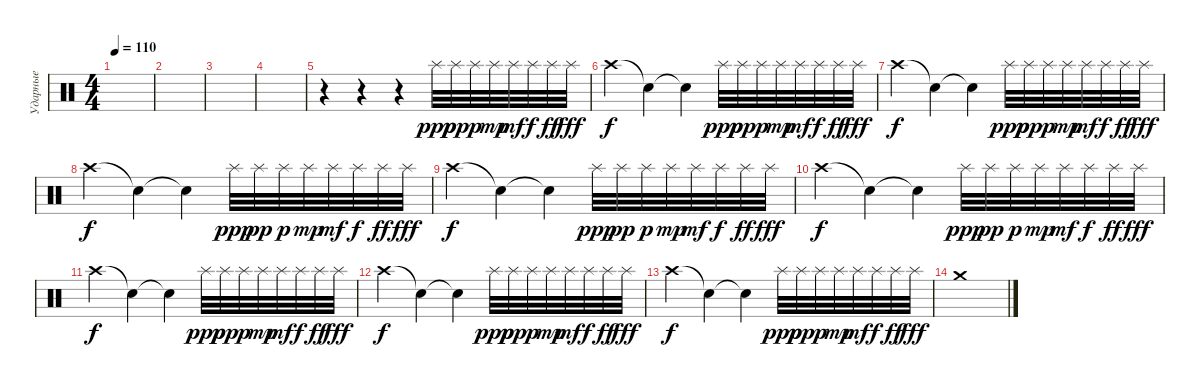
\track ("Ударные" "Ударные") {instrument percussion}
\staff {score}
\articulation defaults
\ts (4 4)
\tempo 110
\clef neutral
\ks c
|
|
|
|
r.4 r.4 r.4 "Splash (hit)".32{dy ppp} "Splash (hit)".32{dy pp} "Splash (hit)".32{dy p} "Splash (hit)".32{dy mp} "Splash (hit)".32{dy mf} "Splash (hit)".32{dy f} "Splash (hit)".32{dy ff} "Splash (hit)".32{dy fff} |
"Crash high (hit)".4{dy f} "Snare (hit)"{t}.4 "Snare (hit)"{t}.4 "Splash (hit)".32{dy ppp} "Splash (hit)".32{dy pp} "Splash (hit)".32{dy p} "Splash (hit)".32{dy mp} "Splash (hit)".32{dy mf} "Splash (hit)".32{dy f} "Splash (hit)".32{dy ff} "Splash (hit)".32{dy fff} |
"Crash high (hit)".4{dy f} "Snare (hit)"{t}.4 "Snare (hit)"{t}.4 "Splash (hit)".32{dy ppp} "Splash (hit)".32{dy pp} "Splash (hit)".32{dy p} "Splash (hit)".32{dy mp} "Splash (hit)".32{dy mf} "Splash (hit)".32{dy f} "Splash (hit)".32{dy ff} "Splash (hit)".32{dy fff} |
"Crash high (hit)".4{dy f} "Snare (hit)"{t}.4 "Snare (hit)"{t}.4 "Splash (hit)".32{dy ppp} "Splash (hit)".32{dy pp} "Splash (hit)".32{dy p} "Splash (hit)".32{dy mp} "Splash (hit)".32{dy mf} "Splash (hit)".32{dy f} "Splash (hit)".32{dy ff} "Splash (hit)".32{dy fff} |
"Crash high (hit)".4{dy f} "Snare (hit)"{t}.4 "Snare (hit)"{t}.4 "Splash (hit)".32{dy ppp} "Splash (hit)".32{dy pp} "Splash (hit)".32{dy p} "Splash (hit)".32{dy mp} "Splash (hit)".32{dy mf} "Splash (hit)".32{dy f} "Splash (hit)".32{dy ff} "Splash (hit)".32{dy fff} |
"Crash high (hit)".4{dy f} "Snare (hit)"{t}.4 "Snare (hit)"{t}.4 "Splash (hit)".32{dy ppp} "Splash (hit)".32{dy pp} "Splash (hit)".32{dy p} "Splash (hit)".32{dy mp} "Splash (hit)".32{dy mf} "Splash (hit)".32{dy f} "Splash (hit)".32{dy ff} "Splash (hit)".32{dy fff} |
"Crash high (hit)".4{dy f} "Snare (hit)"{t}.4 "Snare (hit)"{t}.4 "Splash (hit)".32{dy ppp} "Splash (hit)".32{dy pp} "Splash (hit)".32{dy p} "Splash (hit)".32{dy mp} "Splash (hit)".32{dy mf} "Splash (hit)".32{dy f} "Splash (hit)".32{dy ff} "Splash (hit)".32{dy fff} |
"Crash high (hit)".4{dy f} "Snare (hit)"{t}.4 "Snare (hit)"{t}.4 "Splash (hit)".32{dy ppp} "Splash (hit)".32{dy pp} "Splash (hit)".32{dy p} "Splash (hit)".32{dy mp} "Splash (hit)".32{dy mf} "Splash (hit)".32{dy f} "Splash (hit)".32{dy ff} "Splash (hit)".32{dy fff} |
"Crash high (hit)".4{dy f} "Snare (hit)"{t}.4 "Snare (hit)"{t}.4 "Splash (hit)".32{dy ppp} "Splash (hit)".32{dy pp} "Splash (hit)".32{dy p} "Splash (hit)".32{dy mp} "Splash (hit)".32{dy mf} "Splash (hit)".32{dy f} "Splash (hit)".32{dy ff} "Splash (hit)".32{dy fff} |
"Crash medium (hit)".1
